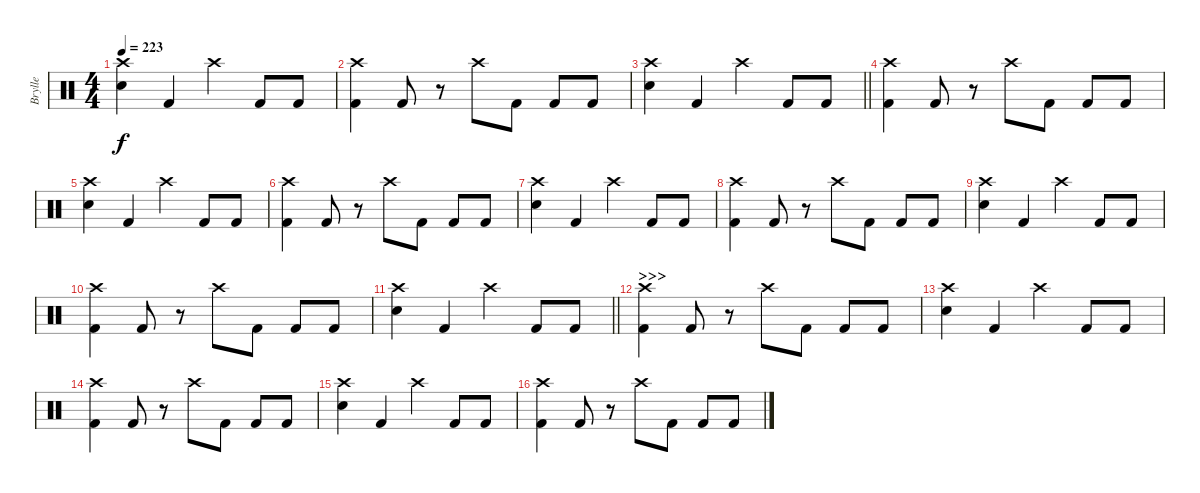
\track ("Brylle" "Brylle") {instrument percussion}
\staff {score}
\articulation defaults
\ts (4 4)
\tempo 223
\clef neutral
\ks c
("Crash high (hit)" "Electric Snare (hit)").4{dy f} "Kick (hit) 2".4 "Crash high (hit)".4 "Kick (hit) 2".8 "Kick (hit) 2".8 |
("Crash high (hit)" "Kick (hit) 2").4 "Kick (hit) 2".8 r.8 "Crash high (hit)".8 "Kick (hit) 2".8 "Kick (hit) 2".8 "Kick (hit) 2".8 |
\barLineRight lightlight
("Crash high (hit)" "Electric Snare (hit)").4 "Kick (hit) 2".4 "Crash high (hit)".4 "Kick (hit) 2".8 "Kick (hit) 2".8 |
("Crash high (hit)" "Kick (hit) 2").4 "Kick (hit) 2".8 r.8 "Crash high (hit)".8 "Kick (hit) 2".8 "Kick (hit) 2".8 "Kick (hit) 2".8 |
("Crash high (hit)" "Electric Snare (hit)").4 "Kick (hit) 2".4 "Crash high (hit)".4 "Kick (hit) 2".8 "Kick (hit) 2".8 |
("Crash high (hit)" "Kick (hit) 2").4 "Kick (hit) 2".8 r.8 "Crash high (hit)".8 "Kick (hit) 2".8 "Kick (hit) 2".8 "Kick (hit) 2".8 |
("Crash high (hit)" "Electric Snare (hit)").4 "Kick (hit) 2".4 "Crash high (hit)".4 "Kick (hit) 2".8 "Kick (hit) 2".8 |
("Crash high (hit)" "Kick (hit) 2").4 "Kick (hit) 2".8 r.8 "Crash high (hit)".8 "Kick (hit) 2".8 "Kick (hit) 2".8 "Kick (hit) 2".8 |
("Crash high (hit)" "Electric Snare (hit)").4 "Kick (hit) 2".4 "Crash high (hit)".4 "Kick (hit) 2".8 "Kick (hit) 2".8 |
("Crash high (hit)" "Kick (hit) 2").4 "Kick (hit) 2".8 r.8 "Crash high (hit)".8 "Kick (hit) 2".8 "Kick (hit) 2".8 "Kick (hit) 2".8 |
\barLineRight lightlight
("Crash high (hit)" "Electric Snare (hit)").4 "Kick (hit) 2".4 "Crash high (hit)".4 "Kick (hit) 2".8 "Kick (hit) 2".8 |
\section ("" ">>>")
("Crash high (hit)" "Kick (hit) 2").4 "Kick (hit) 2".8 r.8 "Crash high (hit)".8 "Kick (hit) 2".8 "Kick (hit) 2".8 "Kick (hit) 2".8 |
("Crash high (hit)" "Electric Snare (hit)").4 "Kick (hit) 2".4 "Crash high (hit)".4 "Kick (hit) 2".8 "Kick (hit) 2".8 |
("Crash high (hit)" "Kick (hit) 2").4 "Kick (hit) 2".8 r.8 "Crash high (hit)".8 "Kick (hit) 2".8 "Kick (hit) 2".8 "Kick (hit) 2".8 |
("Crash high (hit)" "Electric Snare (hit)").4 "Kick (hit) 2".4 "Crash high (hit)".4 "Kick (hit) 2".8 "Kick (hit) 2".8 |
("Crash high (hit)" "Kick (hit) 2").4 "Kick (hit) 2".8 r.8 "Crash high (hit)".8 "Kick (hit) 2".8 "Kick (hit) 2".8 "Kick (hit) 2".8
